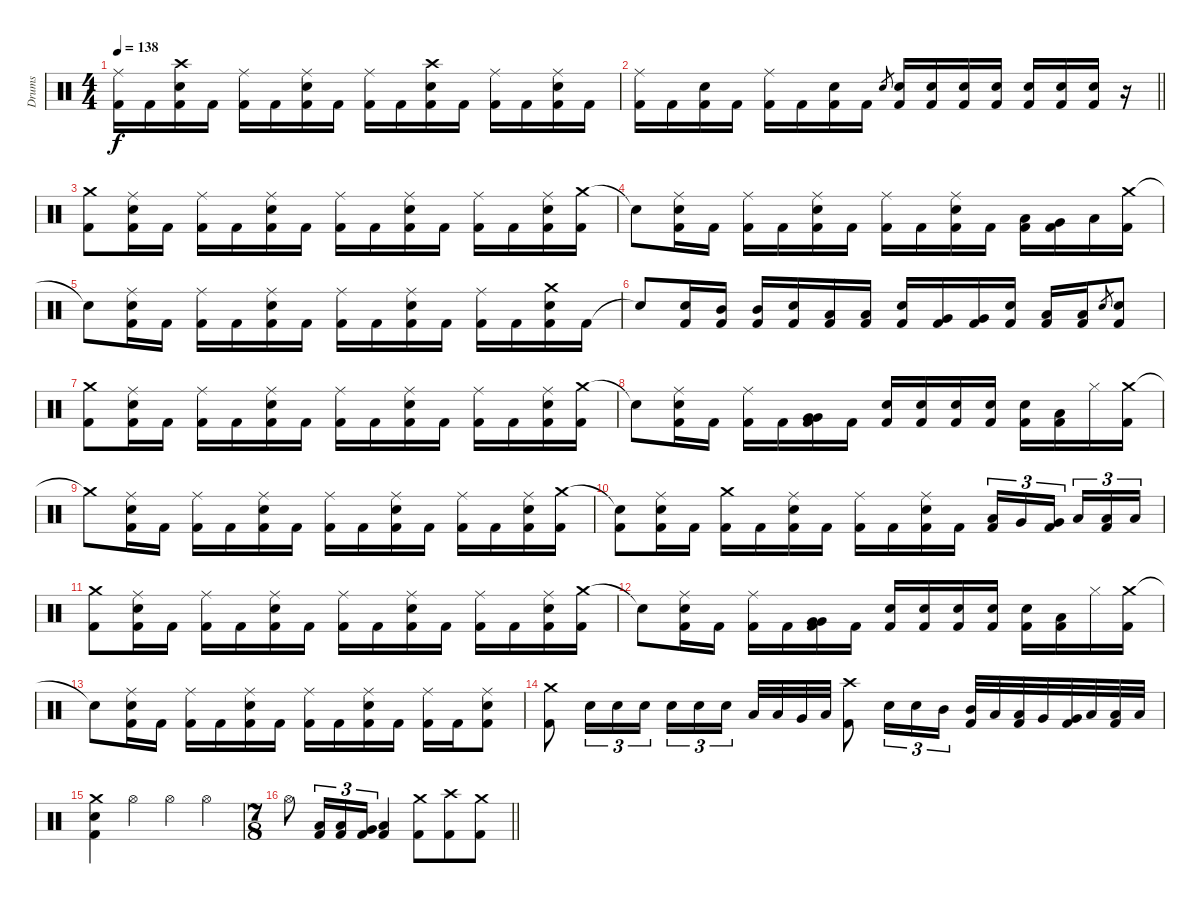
\track ("Drums" "Drums") {instrument percussion}
\staff {score}
\articulation defaults
\ts (4 4)
\tempo 138
\clef neutral
\ks c
("Ride (middle)" "Kick (hit) 2").16{dy f} "Kick (hit) 2".16 ("Crash high (hit)" "Electric Snare (hit)" "Kick (hit) 2").16 "Kick (hit) 2".16 ("Ride (middle)" "Kick (hit) 2").16 "Kick (hit) 2".16 ("Ride (middle)" "Electric Snare (hit)" "Kick (hit) 2").16 "Kick (hit) 2".16 ("Ride (middle)" "Kick (hit) 2").16 "Kick (hit) 2".16 ("Crash high (hit)" "Electric Snare (hit)" "Kick (hit) 2").16 "Kick (hit) 2".16 ("Ride (middle)" "Kick (hit) 2").16 "Kick (hit) 2".16 ("Ride (middle)" "Electric Snare (hit)" "Kick (hit) 2").16 "Kick (hit) 2".16 |
\barLineRight lightlight
("Ride (middle)" "Kick (hit) 2").16 "Kick (hit) 2".16 ("Electric Snare (hit)" "Kick (hit) 2").16 "Kick (hit) 2".16 ("Ride (middle)" "Kick (hit) 2").16 "Kick (hit) 2".16 ("Electric Snare (hit)" "Kick (hit) 2").16 "Kick (hit) 2".16 "Electric Snare (hit)".8{gr} ("Electric Snare (hit)" "Kick (hit) 2").16 ("Electric Snare (hit)" "Kick (hit) 2").16 ("Electric Snare (hit)" "Kick (hit) 2").16 ("Electric Snare (hit)" "Kick (hit) 2").16 ("Electric Snare (hit)" "Kick (hit) 2").16 ("Electric Snare (hit)" "Kick (hit) 2").16 ("Electric Snare (hit)" "Kick (hit) 2").16 r.16 |
("Crash medium (hit)" "Kick (hit) 2").8 ("Ride (middle)" "Electric Snare (hit)" "Kick (hit) 2").16 "Kick (hit) 2".16 ("Ride (middle)" "Kick (hit) 2").16 "Kick (hit) 2".16 ("Ride (middle)" "Electric Snare (hit)" "Kick (hit) 2").16 "Kick (hit) 2".16 ("Ride (middle)" "Kick (hit) 2").16 "Kick (hit) 2".16 ("Ride (middle)" "Electric Snare (hit)" "Kick (hit) 2").16 "Kick (hit) 2".16 ("Ride (middle)" "Kick (hit) 2").16 "Kick (hit) 2".16 ("Ride (middle)" "Electric Snare (hit)" "Kick (hit) 2").16 ("Crash medium (hit)" "Kick (hit) 2").16 |
"Snare (hit)"{t}.8 ("Ride (middle)" "Electric Snare (hit)" "Kick (hit) 2").16 "Kick (hit) 2".16 ("Ride (middle)" "Kick (hit) 2").16 "Kick (hit) 2".16 ("Ride (middle)" "Electric Snare (hit)" "Kick (hit) 2").16 "Kick (hit) 2".16 ("Ride (middle)" "Kick (hit) 2").16 "Kick (hit) 2".16 ("Ride (middle)" "Electric Snare (hit)" "Kick (hit) 2").16 "Kick (hit) 2".16 ("Low Tom (hit)" "Kick (hit) 2").16 ("Very Low Tom (hit)" "Kick (hit) 2").16 "Low Floor Tom (hit)".16 ("Crash medium (hit)" "Kick (hit) 2").16 |
"Snare (hit)"{t}.8 ("Ride (middle)" "Electric Snare (hit)" "Kick (hit) 2").16 "Kick (hit) 2".16 ("Ride (middle)" "Kick (hit) 2").16 "Kick (hit) 2".16 ("Ride (middle)" "Electric Snare (hit)" "Kick (hit) 2").16 "Kick (hit) 2".16 ("Ride (middle)" "Kick (hit) 2").16 "Kick (hit) 2".16 ("Ride (middle)" "Electric Snare (hit)" "Kick (hit) 2").16 "Kick (hit) 2".16 ("Ride (middle)" "Kick (hit) 2").16 "Kick (hit) 2".16 ("Crash medium (hit)" "Electric Snare (hit)" "Kick (hit) 2").16 "Kick (hit) 2".16 |
"Snare (hit)"{t}.8 ("Electric Snare (hit)" "Kick (hit) 2").16 ("Mid Tom (hit)" "Kick (hit) 2").16 ("Mid Tom (hit)" "Kick (hit) 2").16 ("Electric Snare (hit)" "Kick (hit) 2").16 ("Low Tom (hit)" "Kick (hit) 2").16 ("Low Tom (hit)" "Kick (hit) 2").16 ("Electric Snare (hit)" "Kick (hit) 2").16 ("Very Low Tom (hit)" "Kick (hit) 2").16 ("Very Low Tom (hit)" "Kick (hit) 2").16 ("Electric Snare (hit)" "Kick (hit) 2").16 ("Low Floor Tom (hit)" "Kick (hit) 2").16 ("Low Floor Tom (hit)" "Kick (hit) 2").16 "Electric Snare (hit)".8{gr} ("Electric Snare (hit)" "Kick (hit) 2").8 |
("Crash medium (hit)" "Kick (hit) 2").8 ("Ride (middle)" "Electric Snare (hit)" "Kick (hit) 2").16 "Kick (hit) 2".16 ("Ride (middle)" "Kick (hit) 2").16 "Kick (hit) 2".16 ("Ride (middle)" "Electric Snare (hit)" "Kick (hit) 2").16 "Kick (hit) 2".16 ("Ride (middle)" "Kick (hit) 2").16 "Kick (hit) 2".16 ("Ride (middle)" "Electric Snare (hit)" "Kick (hit) 2").16 "Kick (hit) 2".16 ("Ride (middle)" "Kick (hit) 2").16 "Kick (hit) 2".16 ("Ride (middle)" "Electric Snare (hit)" "Kick (hit) 2").16 ("Crash medium (hit)" "Kick (hit) 2").16 |
"Snare (hit)"{t}.8 ("Ride (middle)" "Electric Snare (hit)" "Kick (hit) 2").16 "Kick (hit) 2".16 ("Ride (middle)" "Kick (hit) 2").16 "Kick (hit) 2".16 ("Very Low Tom (hit)" "Very Low Tom (hit)" "Kick (hit) 2").16 "Kick (hit) 2".16 ("Electric Snare (hit)" "Kick (hit) 2").16 ("Electric Snare (hit)" "Kick (hit) 2").16 ("Electric Snare (hit)" "Kick (hit) 2").16 ("Electric Snare (hit)" "Kick (hit) 2").16 ("Electric Snare (hit)" "Kick (hit) 2").16 ("Low Floor Tom (hit)" "Kick (hit) 2").16 "Hi-Hat (closed)".16 ("Crash medium (hit)" "Kick (hit) 2").16 |
"Crash medium (hit)"{t}.8 ("Ride (middle)" "Electric Snare (hit)" "Kick (hit) 2").16 "Kick (hit) 2".16 ("Ride (middle)" "Kick (hit) 2").16 "Kick (hit) 2".16 ("Ride (middle)" "Electric Snare (hit)" "Kick (hit) 2").16 "Kick (hit) 2".16 ("Ride (middle)" "Kick (hit) 2").16 "Kick (hit) 2".16 ("Ride (middle)" "Electric Snare (hit)" "Kick (hit) 2").16 "Kick (hit) 2".16 ("Ride (middle)" "Kick (hit) 2").16 "Kick (hit) 2".16 ("Ride (middle)" "Electric Snare (hit)" "Kick (hit) 2").16 ("Crash medium (hit)" "Kick (hit) 2").16 |
("Snare (hit)"{t} "Kick (hit) 2").8 ("Ride (middle)" "Electric Snare (hit)" "Kick (hit) 2").16 "Kick (hit) 2".16 ("Crash medium (hit)" "Kick (hit) 2").16 "Kick (hit) 2".16 ("Ride (middle)" "Electric Snare (hit)" "Kick (hit) 2").16 "Kick (hit) 2".16 ("Ride (middle)" "Kick (hit) 2").16 "Kick (hit) 2".16 ("Ride (middle)" "Electric Snare (hit)" "Kick (hit) 2").16 "Kick (hit) 2".16 ("Low Tom (hit)" "Kick (hit) 2").16{tu (3 2)} "Very Low Tom (hit)".16{tu (3 2)} ("Very Low Tom (hit)" "Kick (hit) 2").16{tu (3 2) beam splitsecondary} "Low Floor Tom (hit)".16{tu (3 2)} ("Low Floor Tom (hit)" "Kick (hit) 2").16{tu (3 2)} "Low Floor Tom (hit)".16{tu (3 2)} |
("Crash medium (hit)" "Kick (hit) 2").8 ("Ride (middle)" "Electric Snare (hit)" "Kick (hit) 2").16 "Kick (hit) 2".16 ("Ride (middle)" "Kick (hit) 2").16 "Kick (hit) 2".16 ("Ride (middle)" "Electric Snare (hit)" "Kick (hit) 2").16 "Kick (hit) 2".16 ("Ride (middle)" "Kick (hit) 2").16 "Kick (hit) 2".16 ("Ride (middle)" "Electric Snare (hit)" "Kick (hit) 2").16 "Kick (hit) 2".16 ("Ride (middle)" "Kick (hit) 2").16 "Kick (hit) 2".16 ("Ride (middle)" "Electric Snare (hit)" "Kick (hit) 2").16 ("Crash medium (hit)" "Kick (hit) 2").16 |
"Snare (hit)"{t}.8 ("Ride (middle)" "Electric Snare (hit)" "Kick (hit) 2").16 "Kick (hit) 2".16 ("Ride (middle)" "Kick (hit) 2").16 "Kick (hit) 2".16 ("Very Low Tom (hit)" "Very Low Tom (hit)" "Kick (hit) 2").16 "Kick (hit) 2".16 ("Electric Snare (hit)" "Kick (hit) 2").16 ("Electric Snare (hit)" "Kick (hit) 2").16 ("Electric Snare (hit)" "Kick (hit) 2").16 ("Electric Snare (hit)" "Kick (hit) 2").16 ("Electric Snare (hit)" "Kick (hit) 2").16 ("Low Floor Tom (hit)" "Kick (hit) 2").16 "Hi-Hat (closed)".16 ("Crash medium (hit)" "Kick (hit) 2").16 |
"Snare (hit)"{t}.8 ("Ride (middle)" "Electric Snare (hit)" "Kick (hit) 2").16 "Kick (hit) 2".16 ("Ride (middle)" "Kick (hit) 2").16 "Kick (hit) 2".16 ("Ride (middle)" "Electric Snare (hit)" "Kick (hit) 2").16 "Kick (hit) 2".16 ("Ride (middle)" "Kick (hit) 2").16 "Kick (hit) 2".16 ("Ride (middle)" "Electric Snare (hit)" "Kick (hit) 2").16 "Kick (hit) 2".16 ("Ride (middle)" "Kick (hit) 2").16 "Kick (hit) 2".16 ("Ride (middle)" "Electric Snare (hit)" "Kick (hit) 2").8 |
("Crash medium (hit)" "Kick (hit) 2").8 "Electric Snare (hit)".16{tu (3 2)} "Electric Snare (hit)".16{tu (3 2)} "Electric Snare (hit)".16{tu (3 2)} "Electric Snare (hit)".16{tu (3 2)} "Electric Snare (hit)".16{tu (3 2)} "Electric Snare (hit)".16{tu (3 2) beam splitsecondary} "Low Tom (hit)".32 "Low Tom (hit)".32 "Very Low Tom (hit)".32 "Low Floor Tom (hit)".32 ("Crash high (hit)" "Kick (hit) 2").8 "Electric Snare (hit)".16{tu (3 2)} "Electric Snare (hit)".16{tu (3 2)} "Mid Tom (hit)".16{tu (3 2)} ("Mid Tom (hit)" "Kick (hit) 2").32 "Low Tom (hit)".32 ("Low Tom (hit)" "Kick (hit) 2").32 "Very Low Tom (hit)".32 ("Very Low Tom (hit)" "Kick (hit) 2").32 "Low Floor Tom (hit)".32 ("Low Floor Tom (hit)" "Kick (hit) 2").32 "Low Floor Tom (hit)".32 |
("Crash medium (hit)" "Electric Snare (hit)" "Kick (hit) 2").4 "Hi-Hat (open)".4 "Hi-Hat (open)".4 "Hi-Hat (open)".4 |
\ts (7 8)
\barLineRight lightlight "Hi-Hat (open)".8
("Low Tom (hit)" "Kick (hit) 2").16{tu (3 2)} ("Low Tom (hit)" "Kick (hit) 2").16{tu (3 2)} ("Very Low Tom (hit)" "Kick (hit) 2").16{tu (3 2)} ("Low Floor Tom (hit)" "Kick (hit) 2").4 ("Crash medium (hit)" "Kick (hit) 2").8 ("Crash high (hit)" "Kick (hit) 2").8 ("Crash medium (hit)" "Kick (hit) 2").8
